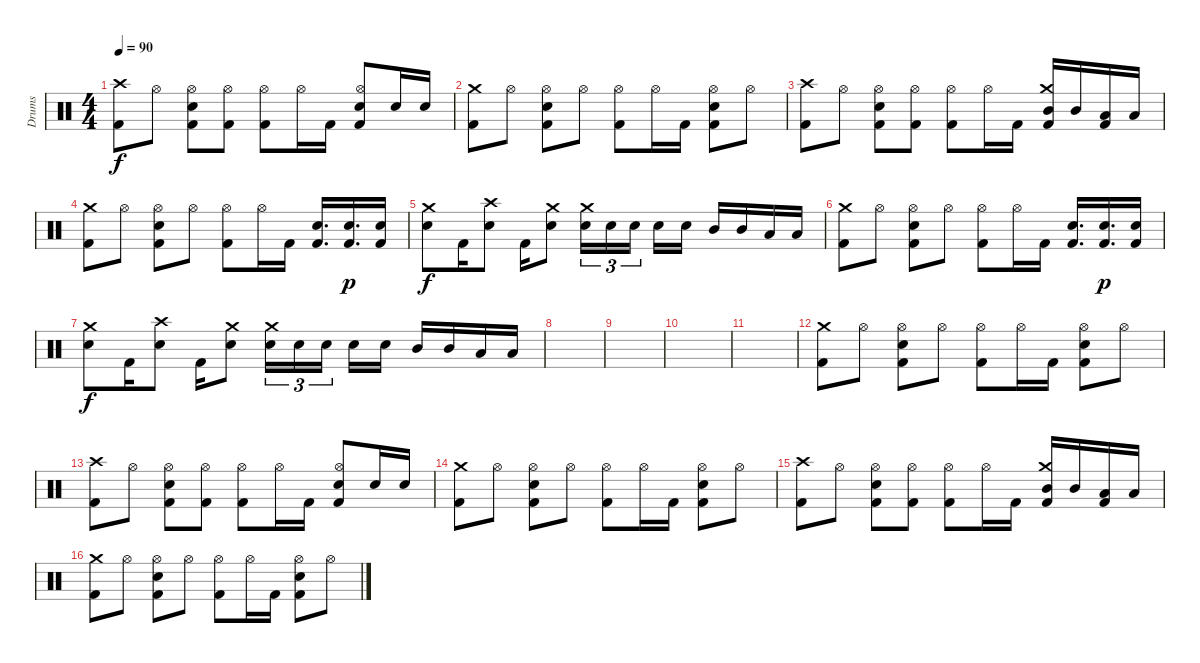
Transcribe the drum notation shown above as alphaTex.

\track ("Drums" "Drums") {instrument percussion}
\staff {score}
\articulation defaults
\ts (4 4)
\tempo 90
\clef neutral
\ks c
("Crash high (hit)" "Kick (hit) 2").8{dy f} "Hi-Hat (open)".8 ("Hi-Hat (open)" "Electric Snare (hit)" "Kick (hit) 2").8 ("Hi-Hat (open)" "Kick (hit) 2").8 ("Hi-Hat (open)" "Kick (hit) 2").8 "Hi-Hat (open)".16 "Kick (hit) 2".16 ("Hi-Hat (open)" "Electric Snare (hit)" "Kick (hit) 2").8 "Electric Snare (hit)".16 "Electric Snare (hit)".16 |
("Crash medium (hit)" "Kick (hit) 2").8 "Hi-Hat (open)".8 ("Hi-Hat (open)" "Electric Snare (hit)" "Kick (hit) 2").8 "Hi-Hat (open)".8 ("Hi-Hat (open)" "Kick (hit) 2").8 "Hi-Hat (open)".16 "Kick (hit) 2".16 ("Hi-Hat (open)" "Electric Snare (hit)" "Kick (hit) 2").8 "Hi-Hat (open)".8 |
("Crash high (hit)" "Kick (hit) 2").8 "Hi-Hat (open)".8 ("Hi-Hat (open)" "Electric Snare (hit)" "Kick (hit) 2").8 ("Hi-Hat (open)" "Kick (hit) 2").8 ("Hi-Hat (open)" "Kick (hit) 2").8 "Hi-Hat (open)".16 "Kick (hit) 2".16 ("Crash medium (hit)" "Mid Tom (hit)" "Kick (hit) 2").16 "Mid Tom (hit)".16 ("Low Tom (hit)" "Kick (hit) 2").16 "Low Tom (hit)".16 |
("Crash medium (hit)" "Kick (hit) 2").8 "Hi-Hat (open)".8 ("Hi-Hat (open)" "Electric Snare (hit)" "Kick (hit) 2").8 "Hi-Hat (open)".8 ("Hi-Hat (open)" "Kick (hit) 2").8 "Hi-Hat (open)".16 "Kick (hit) 2".16 ("Electric Snare (hit)" "Kick (hit) 2").16{d} ("Electric Snare (hit)" "Kick (hit) 2").16{d dy p} ("Electric Snare (hit)" "Kick (hit) 2").16 |
("Crash medium (hit)" "Electric Snare (hit)").8{dy f} "Kick (hit) 2".16 ("Crash high (hit)" "Electric Snare (hit)").8 "Kick (hit) 2".16 ("Crash medium (hit)" "Electric Snare (hit)").8 ("Crash medium (hit)" "Electric Snare (hit)").16{tu (3 2)} "Electric Snare (hit)".16{tu (3 2)} "Electric Snare (hit)".16{tu (3 2) beam splitsecondary} "Electric Snare (hit)".16 "Electric Snare (hit)".16 "Mid Tom (hit)".16 "Mid Tom (hit)".16 "Low Tom (hit)".16 "Low Tom (hit)".16 |
("Crash medium (hit)" "Kick (hit) 2").8 "Hi-Hat (open)".8 ("Hi-Hat (open)" "Electric Snare (hit)" "Kick (hit) 2").8 "Hi-Hat (open)".8 ("Hi-Hat (open)" "Kick (hit) 2").8 "Hi-Hat (open)".16 "Kick (hit) 2".16 ("Electric Snare (hit)" "Kick (hit) 2").16{d} ("Electric Snare (hit)" "Kick (hit) 2").16{d dy p} ("Electric Snare (hit)" "Kick (hit) 2").16 |
("Crash medium (hit)" "Electric Snare (hit)").8{dy f} "Kick (hit) 2".16 ("Crash high (hit)" "Electric Snare (hit)").8 "Kick (hit) 2".16 ("Crash medium (hit)" "Electric Snare (hit)").8 ("Crash medium (hit)" "Electric Snare (hit)").16{tu (3 2)} "Electric Snare (hit)".16{tu (3 2)} "Electric Snare (hit)".16{tu (3 2) beam splitsecondary} "Electric Snare (hit)".16 "Electric Snare (hit)".16 "Mid Tom (hit)".16 "Mid Tom (hit)".16 "Low Tom (hit)".16 "Low Tom (hit)".16 |
|
|
|
|
("Crash medium (hit)" "Kick (hit) 2").8 "Hi-Hat (open)".8 ("Hi-Hat (open)" "Electric Snare (hit)" "Kick (hit) 2").8 "Hi-Hat (open)".8 ("Hi-Hat (open)" "Kick (hit) 2").8 "Hi-Hat (open)".16 "Kick (hit) 2".16 ("Hi-Hat (open)" "Electric Snare (hit)" "Kick (hit) 2").8 "Hi-Hat (open)".8 |
("Crash high (hit)" "Kick (hit) 2").8 "Hi-Hat (open)".8 ("Hi-Hat (open)" "Electric Snare (hit)" "Kick (hit) 2").8 ("Hi-Hat (open)" "Kick (hit) 2").8 ("Hi-Hat (open)" "Kick (hit) 2").8 "Hi-Hat (open)".16 "Kick (hit) 2".16 ("Hi-Hat (open)" "Electric Snare (hit)" "Kick (hit) 2").8 "Electric Snare (hit)".16 "Electric Snare (hit)".16 |
("Crash medium (hit)" "Kick (hit) 2").8 "Hi-Hat (open)".8 ("Hi-Hat (open)" "Electric Snare (hit)" "Kick (hit) 2").8 "Hi-Hat (open)".8 ("Hi-Hat (open)" "Kick (hit) 2").8 "Hi-Hat (open)".16 "Kick (hit) 2".16 ("Hi-Hat (open)" "Electric Snare (hit)" "Kick (hit) 2").8 "Hi-Hat (open)".8 |
("Crash high (hit)" "Kick (hit) 2").8 "Hi-Hat (open)".8 ("Hi-Hat (open)" "Electric Snare (hit)" "Kick (hit) 2").8 ("Hi-Hat (open)" "Kick (hit) 2").8 ("Hi-Hat (open)" "Kick (hit) 2").8 "Hi-Hat (open)".16 "Kick (hit) 2".16 ("Crash medium (hit)" "Mid Tom (hit)" "Kick (hit) 2").16 "Mid Tom (hit)".16 ("Low Tom (hit)" "Kick (hit) 2").16 "Low Tom (hit)".16 |
("Crash medium (hit)" "Kick (hit) 2").8 "Hi-Hat (open)".8 ("Hi-Hat (open)" "Electric Snare (hit)" "Kick (hit) 2").8 "Hi-Hat (open)".8 ("Hi-Hat (open)" "Kick (hit) 2").8 "Hi-Hat (open)".16 "Kick (hit) 2".16 ("Hi-Hat (open)" "Electric Snare (hit)" "Kick (hit) 2").8 "Hi-Hat (open)".8
